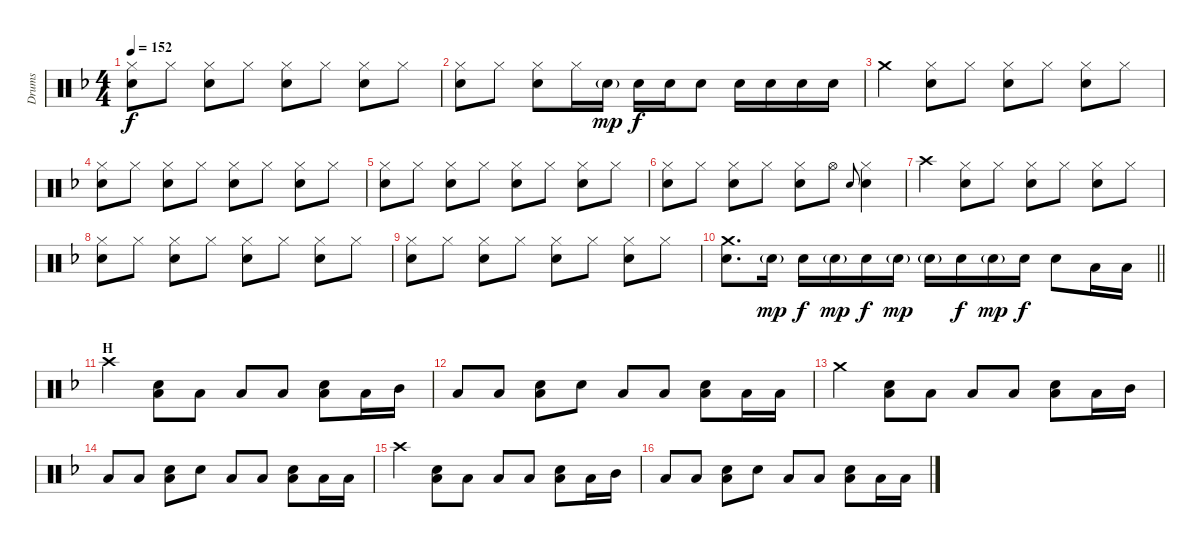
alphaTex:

\track ("Drums" "Drums") {instrument percussion}
\staff {score}
\articulation defaults
\ts (4 4)
\tempo 152
\clef neutral
\ks f
("Hi-Hat (closed)" "Snare (hit) 2").8{dy f} "Hi-Hat (closed)".8 ("Hi-Hat (closed)" "Snare (hit) 2").8 "Hi-Hat (closed)".8 ("Hi-Hat (closed)" "Snare (hit) 2").8 "Hi-Hat (closed)".8 ("Hi-Hat (closed)" "Snare (hit) 2").8 "Hi-Hat (closed)".8 |
("Hi-Hat (closed)" "Snare (hit) 2").8 "Hi-Hat (closed)".8 ("Hi-Hat (closed)" "Snare (hit) 2").8 "Hi-Hat (closed)".16 "Snare (hit) 2"{g}.16{dy mp} "Snare (hit) 2".16{dy f} "Snare (hit) 2".16 "Snare (hit) 2".8 "Snare (hit) 2".16 "Snare (hit) 2".16 "Snare (hit) 2".16 "Snare (hit) 2".16 |
"Crash medium (hit)".4 ("Hi-Hat (closed)" "Snare (hit) 2").8 "Hi-Hat (closed)".8 ("Hi-Hat (closed)" "Snare (hit) 2").8 "Hi-Hat (closed)".8 ("Hi-Hat (closed)" "Snare (hit) 2").8 "Hi-Hat (closed)".8 |
("Hi-Hat (closed)" "Snare (hit) 2").8 "Hi-Hat (closed)".8 ("Hi-Hat (closed)" "Snare (hit) 2").8 "Hi-Hat (closed)".8 ("Hi-Hat (closed)" "Snare (hit) 2").8 "Hi-Hat (closed)".8 ("Hi-Hat (closed)" "Snare (hit) 2").8 "Hi-Hat (closed)".8 |
("Hi-Hat (closed)" "Snare (hit) 2").8 "Hi-Hat (closed)".8 ("Hi-Hat (closed)" "Snare (hit) 2").8 "Hi-Hat (closed)".8 ("Hi-Hat (closed)" "Snare (hit) 2").8 "Hi-Hat (closed)".8 ("Hi-Hat (closed)" "Snare (hit) 2").8 "Hi-Hat (closed)".8 |
("Hi-Hat (closed)" "Snare (hit) 2").8 "Hi-Hat (closed)".8 ("Hi-Hat (closed)" "Snare (hit) 2").8 "Hi-Hat (closed)".8 ("Hi-Hat (closed)" "Snare (hit) 2").8 "Hi-Hat (open)".8 "Snare (hit) 2".8{gr onbeat} ("Hi-Hat (closed)" "Snare (hit) 2").4 |
"Crash high (hit)".4 ("Hi-Hat (closed)" "Snare (hit) 2").8 "Hi-Hat (closed)".8 ("Hi-Hat (closed)" "Snare (hit) 2").8 "Hi-Hat (closed)".8 ("Hi-Hat (closed)" "Snare (hit) 2").8 "Hi-Hat (closed)".8 |
("Hi-Hat (closed)" "Snare (hit) 2").8 "Hi-Hat (closed)".8 ("Hi-Hat (closed)" "Snare (hit) 2").8 "Hi-Hat (closed)".8 ("Hi-Hat (closed)" "Snare (hit) 2").8 "Hi-Hat (closed)".8 ("Hi-Hat (closed)" "Snare (hit) 2").8 "Hi-Hat (closed)".8 |
("Hi-Hat (closed)" "Snare (hit) 2").8 "Hi-Hat (closed)".8 ("Hi-Hat (closed)" "Snare (hit) 2").8 "Hi-Hat (closed)".8 ("Hi-Hat (closed)" "Snare (hit) 2").8 "Hi-Hat (closed)".8 ("Hi-Hat (closed)" "Snare (hit) 2").8 "Hi-Hat (closed)".8 |
\barLineRight lightlight
("Crash medium (hit)" "Snare (hit) 2").8{d} "Snare (hit) 2"{g}.16{dy mp} "Snare (hit) 2".16{dy f} "Snare (hit) 2"{g}.16{dy mp} "Snare (hit) 2".16{dy f} "Snare (hit) 2"{g}.16{dy mp} "Snare (hit) 2"{g}.16 "Snare (hit) 2".16{dy f} "Snare (hit) 2"{g}.16{dy mp} "Snare (hit) 2".16{dy f} "Snare (hit) 2".8 "Low Tom (hit)".16 "Low Tom (hit)".16 |
\section ("" "H")
"Crash high (hit)".4 ("Snare (hit) 2" "Low Tom (hit)").8 "Low Tom (hit)".8 "Low Tom (hit)".8 "Low Tom (hit)".8 ("Snare (hit) 2" "Low Tom (hit)").8 "Low Tom (hit)".16 "Mid Tom (hit)".16 |
"Low Tom (hit)".8 "Low Tom (hit)".8 ("Snare (hit) 2" "Low Tom (hit)").8 "Snare (hit) 2".8 "Low Tom (hit)".8 "Low Tom (hit)".8 ("Snare (hit) 2" "Low Tom (hit)").8 "Low Tom (hit)".16 "Low Tom (hit)".16 |
"Crash medium (hit)".4 ("Snare (hit) 2" "Low Tom (hit)").8 "Low Tom (hit)".8 "Low Tom (hit)".8 "Low Tom (hit)".8 ("Snare (hit) 2" "Low Tom (hit)").8 "Low Tom (hit)".16 "Mid Tom (hit)".16 |
"Low Tom (hit)".8 "Low Tom (hit)".8 ("Snare (hit) 2" "Low Tom (hit)").8 "Snare (hit) 2".8 "Low Tom (hit)".8 "Low Tom (hit)".8 ("Snare (hit) 2" "Low Tom (hit)").8 "Low Tom (hit)".16 "Low Tom (hit)".16 |
"Crash high (hit)".4 ("Snare (hit) 2" "Low Tom (hit)").8 "Low Tom (hit)".8 "Low Tom (hit)".8 "Low Tom (hit)".8 ("Snare (hit) 2" "Low Tom (hit)").8 "Low Tom (hit)".16 "Mid Tom (hit)".16 |
"Low Tom (hit)".8 "Low Tom (hit)".8 ("Snare (hit) 2" "Low Tom (hit)").8 "Snare (hit) 2".8 "Low Tom (hit)".8 "Low Tom (hit)".8 ("Snare (hit) 2" "Low Tom (hit)").8 "Low Tom (hit)".16 "Low Tom (hit)".16
